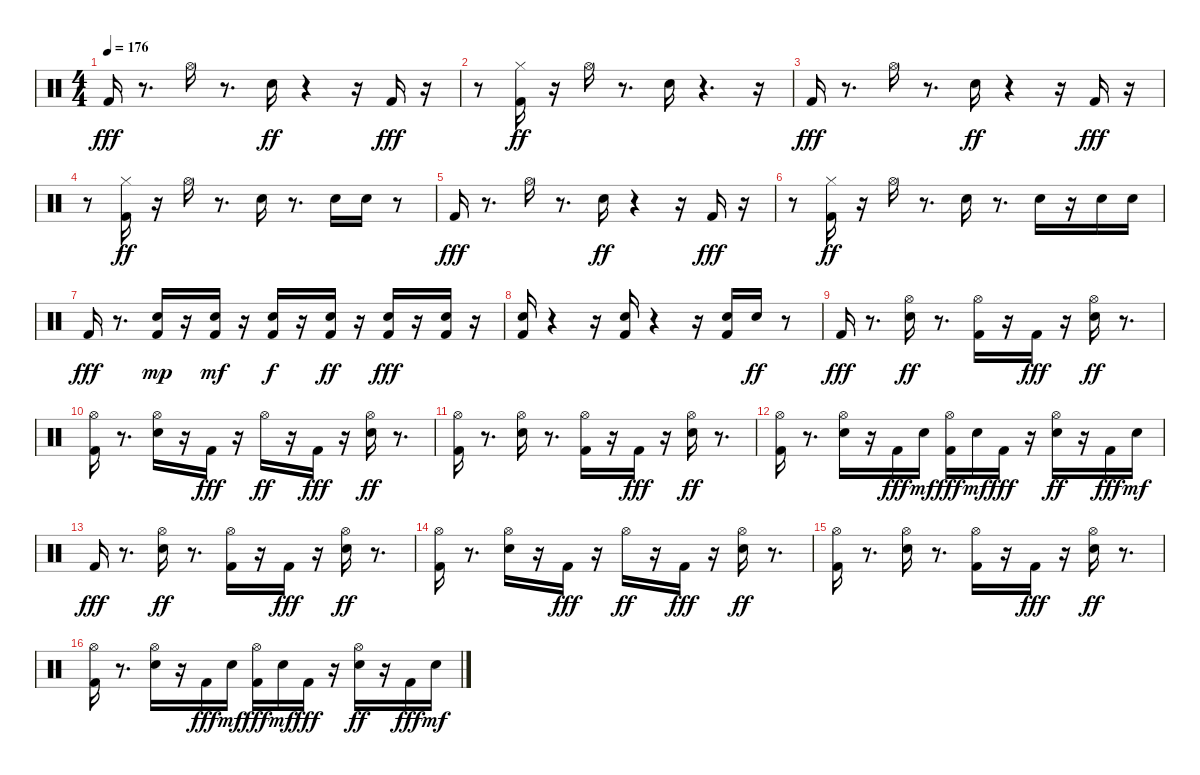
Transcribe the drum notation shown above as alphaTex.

\track "" {instrument percussion}
\staff {score}
\articulation defaults
\ts (4 4)
\tempo 176
\clef neutral
\ks c "Kick (hit) 2".16{dy fff}
r.8{d} "Hi-Hat (open)".16 r.8{d} "Electric Snare (hit)".16{dy ff} r.4 r.16 "Kick (hit) 2".16{dy fff} r.16 |
r.8 ("Kick (hit) 2" "Hi-Hat (closed)").16{dy ff} r.16 "Hi-Hat (open)".16 r.8{d} "Electric Snare (hit)".16 r.4{d} r.16 |
"Kick (hit) 2".16{dy fff} r.8{d} "Hi-Hat (open)".16 r.8{d} "Electric Snare (hit)".16{dy ff} r.4 r.16 "Kick (hit) 2".16{dy fff} r.16 |
r.8 ("Kick (hit) 2" "Hi-Hat (closed)").16{dy ff} r.16 "Hi-Hat (open)".16 r.8{d} "Electric Snare (hit)".16 r.8{d} "Electric Snare (hit)".16 "Electric Snare (hit)".16 r.8 |
"Kick (hit) 2".16{dy fff} r.8{d} "Hi-Hat (open)".16 r.8{d} "Electric Snare (hit)".16{dy ff} r.4 r.16 "Kick (hit) 2".16{dy fff} r.16 |
r.8 ("Kick (hit) 2" "Hi-Hat (closed)").16{dy ff} r.16 "Hi-Hat (open)".16 r.8{d} "Electric Snare (hit)".16 r.8{d} "Electric Snare (hit)".16 r.16 "Electric Snare (hit)".16 "Electric Snare (hit)".16 |
"Kick (hit) 2".16{dy fff} r.8{d} ("Electric Snare (hit)" "Kick (hit) 2").16{dy mp} r.16 ("Electric Snare (hit)" "Kick (hit) 2").16{dy mf} r.16 ("Electric Snare (hit)" "Kick (hit) 2").16{dy f} r.16 ("Electric Snare (hit)" "Kick (hit) 2").16{dy ff} r.16 ("Electric Snare (hit)" "Kick (hit) 2").16{dy fff} r.16 ("Kick (hit) 2" "Electric Snare (hit)").16 r.16 |
("Kick (hit) 2" "Electric Snare (hit)").16 r.4 r.16 ("Kick (hit) 2" "Electric Snare (hit)").16 r.4 r.16 ("Kick (hit) 2" "Electric Snare (hit)").16 "Electric Snare (hit)".16{dy ff} r.8 |
"Kick (hit) 2".16{dy fff} r.8{d} ("Electric Snare (hit)" "Hi-Hat (open)").16{dy ff} r.8{d} ("Kick (hit) 2" "Hi-Hat (open)").16 r.16 "Kick (hit) 2".16{dy fff} r.16 ("Electric Snare (hit)" "Hi-Hat (open)").16{dy ff} r.8{d} |
("Kick (hit) 2" "Hi-Hat (open)").16 r.8{d} ("Electric Snare (hit)" "Hi-Hat (open)").16 r.16 "Kick (hit) 2".16{dy fff} r.16 "Hi-Hat (open)".16{dy ff} r.16 "Kick (hit) 2".16{dy fff} r.16 ("Electric Snare (hit)" "Hi-Hat (open)").16{dy ff} r.8{d} |
("Kick (hit) 2" "Hi-Hat (open)").16 r.8{d} ("Electric Snare (hit)" "Hi-Hat (open)").16 r.8{d} ("Kick (hit) 2" "Hi-Hat (open)").16 r.16 "Kick (hit) 2".16{dy fff} r.16 ("Electric Snare (hit)" "Hi-Hat (open)").16{dy ff} r.8{d} |
("Kick (hit) 2" "Hi-Hat (open)").16 r.8{d} ("Electric Snare (hit)" "Hi-Hat (open)").16 r.16 "Kick (hit) 2".16{dy fff} "Electric Snare (hit)".16{dy mf} ("Hi-Hat (open)" "Kick (hit) 2").16{dy fff} "Electric Snare (hit)".16{dy mf} "Kick (hit) 2".16{dy fff} r.16 ("Electric Snare (hit)" "Hi-Hat (open)").16{dy ff} r.16 "Kick (hit) 2".16{dy fff} "Electric Snare (hit)".16{dy mf} |
"Kick (hit) 2".16{dy fff} r.8{d} ("Electric Snare (hit)" "Hi-Hat (open)").16{dy ff} r.8{d} ("Kick (hit) 2" "Hi-Hat (open)").16 r.16 "Kick (hit) 2".16{dy fff} r.16 ("Electric Snare (hit)" "Hi-Hat (open)").16{dy ff} r.8{d} |
("Kick (hit) 2" "Hi-Hat (open)").16 r.8{d} ("Electric Snare (hit)" "Hi-Hat (open)").16 r.16 "Kick (hit) 2".16{dy fff} r.16 "Hi-Hat (open)".16{dy ff} r.16 "Kick (hit) 2".16{dy fff} r.16 ("Electric Snare (hit)" "Hi-Hat (open)").16{dy ff} r.8{d} |
("Kick (hit) 2" "Hi-Hat (open)").16 r.8{d} ("Electric Snare (hit)" "Hi-Hat (open)").16 r.8{d} ("Kick (hit) 2" "Hi-Hat (open)").16 r.16 "Kick (hit) 2".16{dy fff} r.16 ("Electric Snare (hit)" "Hi-Hat (open)").16{dy ff} r.8{d} |
("Kick (hit) 2" "Hi-Hat (open)").16 r.8{d} ("Electric Snare (hit)" "Hi-Hat (open)").16 r.16 "Kick (hit) 2".16{dy fff} "Electric Snare (hit)".16{dy mf} ("Hi-Hat (open)" "Kick (hit) 2").16{dy fff} "Electric Snare (hit)".16{dy mf} "Kick (hit) 2".16{dy fff} r.16 ("Electric Snare (hit)" "Hi-Hat (open)").16{dy ff} r.16 "Kick (hit) 2".16{dy fff} "Electric Snare (hit)".16{dy mf}
